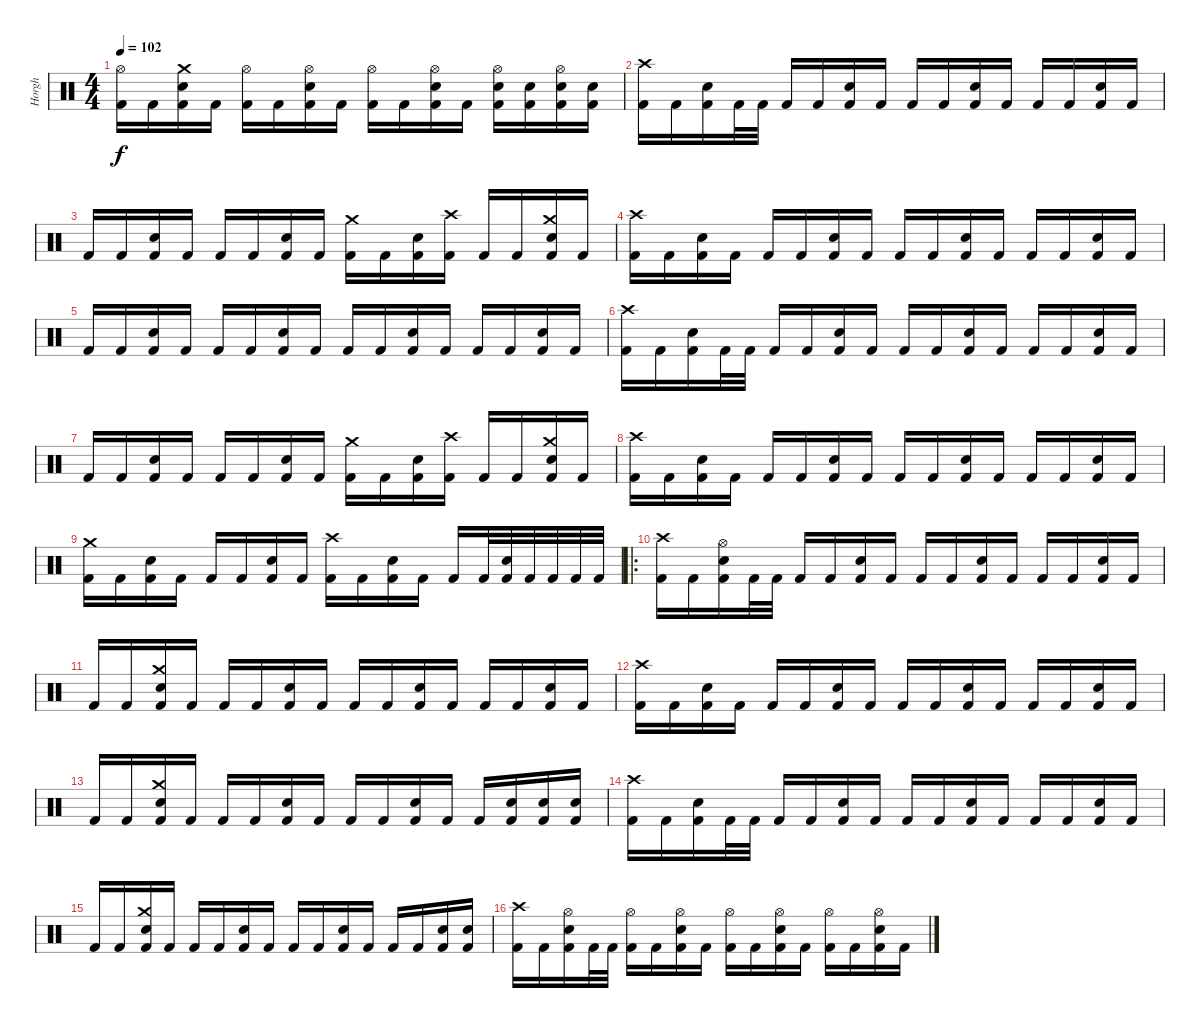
\track ("Horgh" "Horgh") {instrument percussion}
\staff {score}
\articulation defaults
\ts (4 4)
\tempo 102
\clef neutral
\ks c
("Hi-Hat (open)" "Kick (hit) 2").16{dy f} "Kick (hit) 2".16 ("Crash medium (hit)" "Electric Snare (hit)" "Kick (hit) 2").16 "Kick (hit) 2".16 ("Hi-Hat (open)" "Kick (hit) 2").16 "Kick (hit) 2".16 ("Hi-Hat (open)" "Electric Snare (hit)" "Kick (hit) 2").16 "Kick (hit) 2".16 ("Hi-Hat (open)" "Kick (hit) 2").16 "Kick (hit) 2".16 ("Hi-Hat (open)" "Electric Snare (hit)" "Kick (hit) 2").16 "Kick (hit) 2".16 ("Hi-Hat (open)" "Electric Snare (hit)" "Kick (hit) 2").16 ("Electric Snare (hit)" "Kick (hit) 2").16 ("Hi-Hat (open)" "Electric Snare (hit)" "Kick (hit) 2").16 ("Electric Snare (hit)" "Kick (hit) 2").16 |
("Crash high (hit)" "Kick (hit) 2").16 "Kick (hit) 2".16 ("Electric Snare (hit)" "Kick (hit) 2").16 "Kick (hit) 2".32 "Kick (hit) 2".32 "Kick (hit) 2".16 "Kick (hit) 2".16 ("Electric Snare (hit)" "Kick (hit) 2").16 "Kick (hit) 2".16 "Kick (hit) 2".16 "Kick (hit) 2".16 ("Electric Snare (hit)" "Kick (hit) 2").16 "Kick (hit) 2".16 "Kick (hit) 2".16 "Kick (hit) 2".16 ("Electric Snare (hit)" "Kick (hit) 2").16 "Kick (hit) 2".16 |
"Kick (hit) 2".16 "Kick (hit) 2".16 ("Electric Snare (hit)" "Kick (hit) 2").16 "Kick (hit) 2".16 "Kick (hit) 2".16 "Kick (hit) 2".16 ("Electric Snare (hit)" "Kick (hit) 2").16 "Kick (hit) 2".16 ("Crash medium (hit)" "Kick (hit) 2").16 "Kick (hit) 2".16 ("Electric Snare (hit)" "Kick (hit) 2").16 ("Crash high (hit)" "Kick (hit) 2").16 "Kick (hit) 2".16 "Kick (hit) 2".16 ("Crash medium (hit)" "Electric Snare (hit)" "Kick (hit) 2").16 "Kick (hit) 2".16 |
("Crash high (hit)" "Kick (hit) 2").16 "Kick (hit) 2".16 ("Electric Snare (hit)" "Kick (hit) 2").16 "Kick (hit) 2".16 "Kick (hit) 2".16 "Kick (hit) 2".16 ("Electric Snare (hit)" "Kick (hit) 2").16 "Kick (hit) 2".16 "Kick (hit) 2".16 "Kick (hit) 2".16 ("Electric Snare (hit)" "Kick (hit) 2").16 "Kick (hit) 2".16 "Kick (hit) 2".16 "Kick (hit) 2".16 ("Electric Snare (hit)" "Kick (hit) 2").16 "Kick (hit) 2".16 |
"Kick (hit) 2".16 "Kick (hit) 2".16 ("Electric Snare (hit)" "Kick (hit) 2").16 "Kick (hit) 2".16 "Kick (hit) 2".16 "Kick (hit) 2".16 ("Electric Snare (hit)" "Kick (hit) 2").16 "Kick (hit) 2".16 "Kick (hit) 2".16 "Kick (hit) 2".16 ("Electric Snare (hit)" "Kick (hit) 2").16 "Kick (hit) 2".16 "Kick (hit) 2".16 "Kick (hit) 2".16 ("Electric Snare (hit)" "Kick (hit) 2").16 "Kick (hit) 2".16 |
("Crash high (hit)" "Kick (hit) 2").16 "Kick (hit) 2".16 ("Electric Snare (hit)" "Kick (hit) 2").16 "Kick (hit) 2".32 "Kick (hit) 2".32 "Kick (hit) 2".16 "Kick (hit) 2".16 ("Electric Snare (hit)" "Kick (hit) 2").16 "Kick (hit) 2".16 "Kick (hit) 2".16 "Kick (hit) 2".16 ("Electric Snare (hit)" "Kick (hit) 2").16 "Kick (hit) 2".16 "Kick (hit) 2".16 "Kick (hit) 2".16 ("Electric Snare (hit)" "Kick (hit) 2").16 "Kick (hit) 2".16 |
"Kick (hit) 2".16 "Kick (hit) 2".16 ("Electric Snare (hit)" "Kick (hit) 2").16 "Kick (hit) 2".16 "Kick (hit) 2".16 "Kick (hit) 2".16 ("Electric Snare (hit)" "Kick (hit) 2").16 "Kick (hit) 2".16 ("Crash medium (hit)" "Kick (hit) 2").16 "Kick (hit) 2".16 ("Electric Snare (hit)" "Kick (hit) 2").16 ("Crash high (hit)" "Kick (hit) 2").16 "Kick (hit) 2".16 "Kick (hit) 2".16 ("Crash medium (hit)" "Electric Snare (hit)" "Kick (hit) 2").16 "Kick (hit) 2".16 |
("Crash high (hit)" "Kick (hit) 2").16 "Kick (hit) 2".16 ("Electric Snare (hit)" "Kick (hit) 2").16 "Kick (hit) 2".16 "Kick (hit) 2".16 "Kick (hit) 2".16 ("Electric Snare (hit)" "Kick (hit) 2").16 "Kick (hit) 2".16 "Kick (hit) 2".16 "Kick (hit) 2".16 ("Electric Snare (hit)" "Kick (hit) 2").16 "Kick (hit) 2".16 "Kick (hit) 2".16 "Kick (hit) 2".16 ("Electric Snare (hit)" "Kick (hit) 2").16 "Kick (hit) 2".16 |
("Crash medium (hit)" "Kick (hit) 2").16 "Kick (hit) 2".16 ("Electric Snare (hit)" "Kick (hit) 2").16 "Kick (hit) 2".16 "Kick (hit) 2".16 "Kick (hit) 2".16 ("Electric Snare (hit)" "Kick (hit) 2").16 "Kick (hit) 2".16 ("Crash high (hit)" "Kick (hit) 2").16 "Kick (hit) 2".16 ("Electric Snare (hit)" "Kick (hit) 2").16 "Kick (hit) 2".16 "Kick (hit) 2".16 "Kick (hit) 2".32 ("Electric Snare (hit)" "Kick (hit) 2").32 "Kick (hit) 2".32 "Kick (hit) 2".32 "Kick (hit) 2".32 "Kick (hit) 2".32 |
\ro
("Crash high (hit)" "Kick (hit) 2").16 "Kick (hit) 2".16 ("Hi-Hat (open)" "Electric Snare (hit)" "Kick (hit) 2").16 "Kick (hit) 2".32 "Kick (hit) 2".32 "Kick (hit) 2".16 "Kick (hit) 2".16 ("Electric Snare (hit)" "Kick (hit) 2").16 "Kick (hit) 2".16 "Kick (hit) 2".16 "Kick (hit) 2".16 ("Electric Snare (hit)" "Kick (hit) 2").16 "Kick (hit) 2".16 "Kick (hit) 2".16 "Kick (hit) 2".16 ("Electric Snare (hit)" "Kick (hit) 2").16 "Kick (hit) 2".16 |
"Kick (hit) 2".16 "Kick (hit) 2".16 ("Crash medium (hit)" "Electric Snare (hit)" "Kick (hit) 2").16 "Kick (hit) 2".16 "Kick (hit) 2".16 "Kick (hit) 2".16 ("Electric Snare (hit)" "Kick (hit) 2").16 "Kick (hit) 2".16 "Kick (hit) 2".16 "Kick (hit) 2".16 ("Electric Snare (hit)" "Kick (hit) 2").16 "Kick (hit) 2".16 "Kick (hit) 2".16 "Kick (hit) 2".16 ("Electric Snare (hit)" "Kick (hit) 2").16 "Kick (hit) 2".16 |
("Crash high (hit)" "Kick (hit) 2").16 "Kick (hit) 2".16 ("Electric Snare (hit)" "Kick (hit) 2").16 "Kick (hit) 2".16 "Kick (hit) 2".16 "Kick (hit) 2".16 ("Electric Snare (hit)" "Kick (hit) 2").16 "Kick (hit) 2".16 "Kick (hit) 2".16 "Kick (hit) 2".16 ("Electric Snare (hit)" "Kick (hit) 2").16 "Kick (hit) 2".16 "Kick (hit) 2".16 "Kick (hit) 2".16 ("Electric Snare (hit)" "Kick (hit) 2").16 "Kick (hit) 2".16 |
"Kick (hit) 2".16 "Kick (hit) 2".16 ("Crash medium (hit)" "Electric Snare (hit)" "Kick (hit) 2").16 "Kick (hit) 2".16 "Kick (hit) 2".16 "Kick (hit) 2".16 ("Electric Snare (hit)" "Kick (hit) 2").16 "Kick (hit) 2".16 "Kick (hit) 2".16 "Kick (hit) 2".16 ("Electric Snare (hit)" "Kick (hit) 2").16 "Kick (hit) 2".16 "Kick (hit) 2".16 ("Electric Snare (hit)" "Kick (hit) 2").16 ("Electric Snare (hit)" "Kick (hit) 2").16 ("Electric Snare (hit)" "Kick (hit) 2").16 |
("Crash high (hit)" "Kick (hit) 2").16 "Kick (hit) 2".16 ("Electric Snare (hit)" "Kick (hit) 2").16 "Kick (hit) 2".32 "Kick (hit) 2".32 "Kick (hit) 2".16 "Kick (hit) 2".16 ("Electric Snare (hit)" "Kick (hit) 2").16 "Kick (hit) 2".16 "Kick (hit) 2".16 "Kick (hit) 2".16 ("Electric Snare (hit)" "Kick (hit) 2").16 "Kick (hit) 2".16 "Kick (hit) 2".16 "Kick (hit) 2".16 ("Electric Snare (hit)" "Kick (hit) 2").16 "Kick (hit) 2".16 |
"Kick (hit) 2".16 "Kick (hit) 2".16 ("Crash medium (hit)" "Electric Snare (hit)" "Kick (hit) 2").16 "Kick (hit) 2".16 "Kick (hit) 2".16 "Kick (hit) 2".16 ("Electric Snare (hit)" "Kick (hit) 2").16 "Kick (hit) 2".16 "Kick (hit) 2".16 "Kick (hit) 2".16 ("Electric Snare (hit)" "Kick (hit) 2").16 "Kick (hit) 2".16 "Kick (hit) 2".16 "Kick (hit) 2".16 ("Electric Snare (hit)" "Kick (hit) 2").16 ("Electric Snare (hit)" "Kick (hit) 2").16 |
("Crash high (hit)" "Kick (hit) 2").16 "Kick (hit) 2".16 ("Hi-Hat (open)" "Electric Snare (hit)" "Kick (hit) 2").16 "Kick (hit) 2".32 "Kick (hit) 2".32 ("Hi-Hat (open)" "Kick (hit) 2").16 "Kick (hit) 2".16 ("Hi-Hat (open)" "Electric Snare (hit)" "Kick (hit) 2").16 "Kick (hit) 2".16 ("Hi-Hat (open)" "Kick (hit) 2").16 "Kick (hit) 2".16 ("Hi-Hat (open)" "Electric Snare (hit)" "Kick (hit) 2").16 "Kick (hit) 2".16 ("Hi-Hat (open)" "Kick (hit) 2").16 "Kick (hit) 2".16 ("Hi-Hat (open)" "Electric Snare (hit)" "Kick (hit) 2").16 "Kick (hit) 2".16
